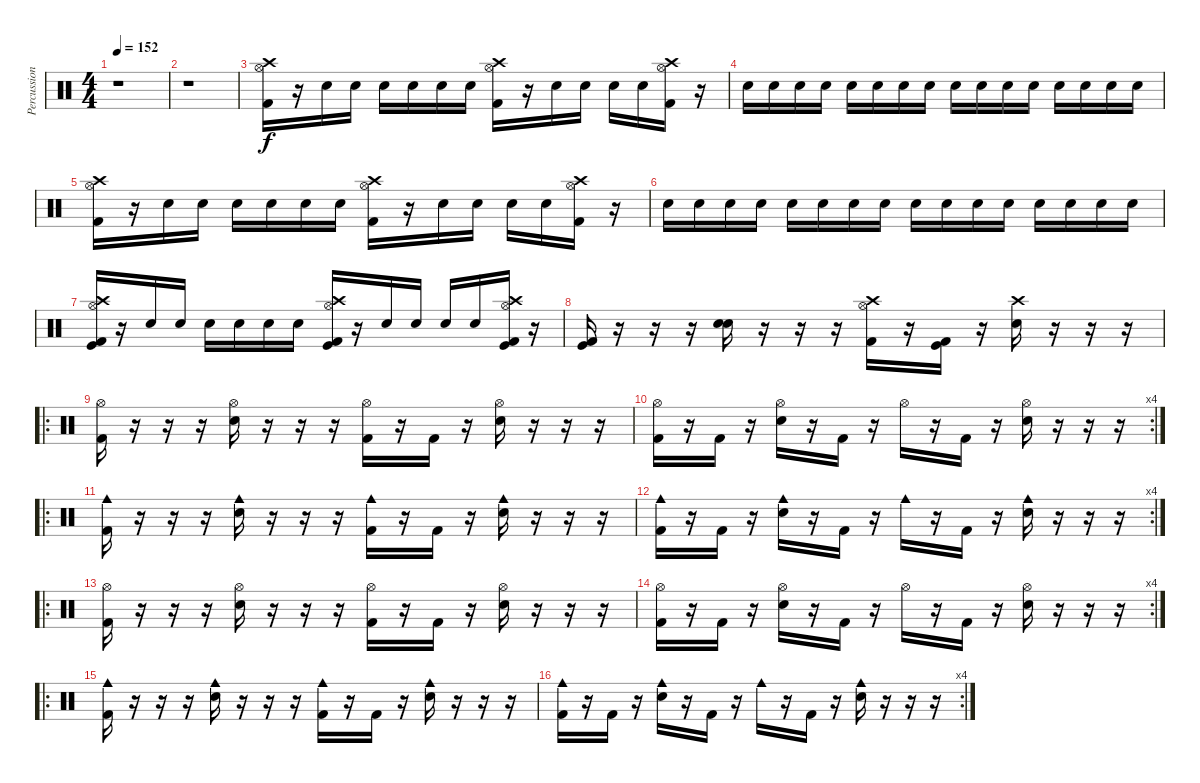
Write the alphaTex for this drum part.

\track ("Percussions" "Percussion") {instrument percussion}
\staff {score}
\articulation defaults
\ts (4 4)
\tempo 152
\clef neutral
\ks c
r.1{dy f} |
r.1 |
("Kick (hit) 2" "Hi-Hat (open)" "Crash high (hit)").16 r.16 "Electric Snare (hit)".16 "Electric Snare (hit)".16 "Electric Snare (hit)".16 "Electric Snare (hit)".16 "Electric Snare (hit)".16 "Electric Snare (hit)".16 ("Kick (hit) 2" "Hi-Hat (open)" "Crash high (hit)").16 r.16 "Electric Snare (hit)".16 "Electric Snare (hit)".16 "Electric Snare (hit)".16 "Electric Snare (hit)".16 ("Kick (hit) 2" "Hi-Hat (open)" "Crash high (hit)").16 r.16 |
"Electric Snare (hit)".16 "Electric Snare (hit)".16 "Electric Snare (hit)".16 "Electric Snare (hit)".16 "Electric Snare (hit)".16 "Electric Snare (hit)".16 "Electric Snare (hit)".16 "Electric Snare (hit)".16 "Electric Snare (hit)".16 "Electric Snare (hit)".16 "Electric Snare (hit)".16 "Electric Snare (hit)".16 "Electric Snare (hit)".16 "Electric Snare (hit)".16 "Electric Snare (hit)".16 "Electric Snare (hit)".16 |
("Kick (hit) 2" "Hi-Hat (open)" "Crash high (hit)").16 r.16 "Electric Snare (hit)".16 "Electric Snare (hit)".16 "Electric Snare (hit)".16 "Electric Snare (hit)".16 "Electric Snare (hit)".16 "Electric Snare (hit)".16 ("Kick (hit) 2" "Hi-Hat (open)" "Crash high (hit)").16 r.16 "Electric Snare (hit)".16 "Electric Snare (hit)".16 "Electric Snare (hit)".16 "Electric Snare (hit)".16 ("Kick (hit) 2" "Hi-Hat (open)" "Crash high (hit)").16 r.16 |
"Electric Snare (hit)".16 "Electric Snare (hit)".16 "Electric Snare (hit)".16 "Electric Snare (hit)".16 "Electric Snare (hit)".16 "Electric Snare (hit)".16 "Electric Snare (hit)".16 "Electric Snare (hit)".16 "Electric Snare (hit)".16 "Electric Snare (hit)".16 "Electric Snare (hit)".16 "Electric Snare (hit)".16 "Electric Snare (hit)".16 "Electric Snare (hit)".16 "Electric Snare (hit)".16 "Electric Snare (hit)".16 |
("Kick (hit) 2" "Kick (hit)" "Hi-Hat (open)" "Crash high (hit)").16 r.16 "Electric Snare (hit)".16 "Electric Snare (hit)".16 "Electric Snare (hit)".16 "Electric Snare (hit)".16 "Electric Snare (hit)".16 "Electric Snare (hit)".16 ("Kick (hit) 2" "Kick (hit)" "Hi-Hat (open)" "Crash high (hit)").16 r.16 "Electric Snare (hit)".16 "Electric Snare (hit)".16 "Electric Snare (hit)".16 "Electric Snare (hit)".16 ("Kick (hit) 2" "Kick (hit)" "Hi-Hat (open)" "Crash high (hit)").16 r.16 |
("Kick (hit) 2" "Kick (hit)").16 r.16 r.16 r.16 ("Snare (hit) 2" "Electric Snare (hit)").16 r.16 r.16 r.16 ("Kick (hit) 2" "Hi-Hat (open)" "Crash high (hit)").16 r.16 ("Kick (hit) 2" "Kick (hit)").16 r.16 ("Electric Snare (hit)" "Crash high (hit)").16 r.16 r.16 r.16 |
\ro
("Kick (hit) 2" "Hi-Hat (open)").16 r.16 r.16 r.16 ("Electric Snare (hit)" "Hi-Hat (open)").16 r.16 r.16 r.16 ("Kick (hit) 2" "Hi-Hat (open)").16 r.16 "Kick (hit) 2".16 r.16 ("Electric Snare (hit)" "Hi-Hat (open)").16 r.16 r.16 r.16 |
\rc 4
("Kick (hit) 2" "Hi-Hat (open)").16 r.16 "Kick (hit) 2".16 r.16 ("Electric Snare (hit)" "Hi-Hat (open)").16 r.16 "Kick (hit) 2".16 r.16 "Hi-Hat (open)".16 r.16 "Kick (hit) 2".16 r.16 ("Electric Snare (hit)" "Hi-Hat (open)").16 r.16 r.16 r.16 |
\ro
("Kick (hit) 2" "Cowbell medium (hit)").16 r.16 r.16 r.16 ("Electric Snare (hit)" "Cowbell medium (hit)").16 r.16 r.16 r.16 ("Kick (hit) 2" "Cowbell medium (hit)").16 r.16 "Kick (hit) 2".16 r.16 ("Electric Snare (hit)" "Cowbell medium (hit)").16 r.16 r.16 r.16 |
\rc 4
("Kick (hit) 2" "Cowbell medium (hit)").16 r.16 "Kick (hit) 2".16 r.16 ("Electric Snare (hit)" "Cowbell medium (hit)").16 r.16 "Kick (hit) 2".16 r.16 "Cowbell medium (hit)".16 r.16 "Kick (hit) 2".16 r.16 ("Electric Snare (hit)" "Cowbell medium (hit)").16 r.16 r.16 r.16 |
\ro
("Kick (hit) 2" "Hi-Hat (open)").16 r.16 r.16 r.16 ("Electric Snare (hit)" "Hi-Hat (open)").16 r.16 r.16 r.16 ("Kick (hit) 2" "Hi-Hat (open)").16 r.16 "Kick (hit) 2".16 r.16 ("Electric Snare (hit)" "Hi-Hat (open)").16 r.16 r.16 r.16 |
\rc 4
("Kick (hit) 2" "Hi-Hat (open)").16 r.16 "Kick (hit) 2".16 r.16 ("Electric Snare (hit)" "Hi-Hat (open)").16 r.16 "Kick (hit) 2".16 r.16 "Hi-Hat (open)".16 r.16 "Kick (hit) 2".16 r.16 ("Electric Snare (hit)" "Hi-Hat (open)").16 r.16 r.16 r.16 |
\ro
("Kick (hit) 2" "Cowbell medium (hit)").16 r.16 r.16 r.16 ("Electric Snare (hit)" "Cowbell medium (hit)").16 r.16 r.16 r.16 ("Kick (hit) 2" "Cowbell medium (hit)").16 r.16 "Kick (hit) 2".16 r.16 ("Electric Snare (hit)" "Cowbell medium (hit)").16 r.16 r.16 r.16 |
\rc 4
("Kick (hit) 2" "Cowbell medium (hit)").16 r.16 "Kick (hit) 2".16 r.16 ("Electric Snare (hit)" "Cowbell medium (hit)").16 r.16 "Kick (hit) 2".16 r.16 "Cowbell medium (hit)".16 r.16 "Kick (hit) 2".16 r.16 ("Electric Snare (hit)" "Cowbell medium (hit)").16 r.16 r.16 r.16
